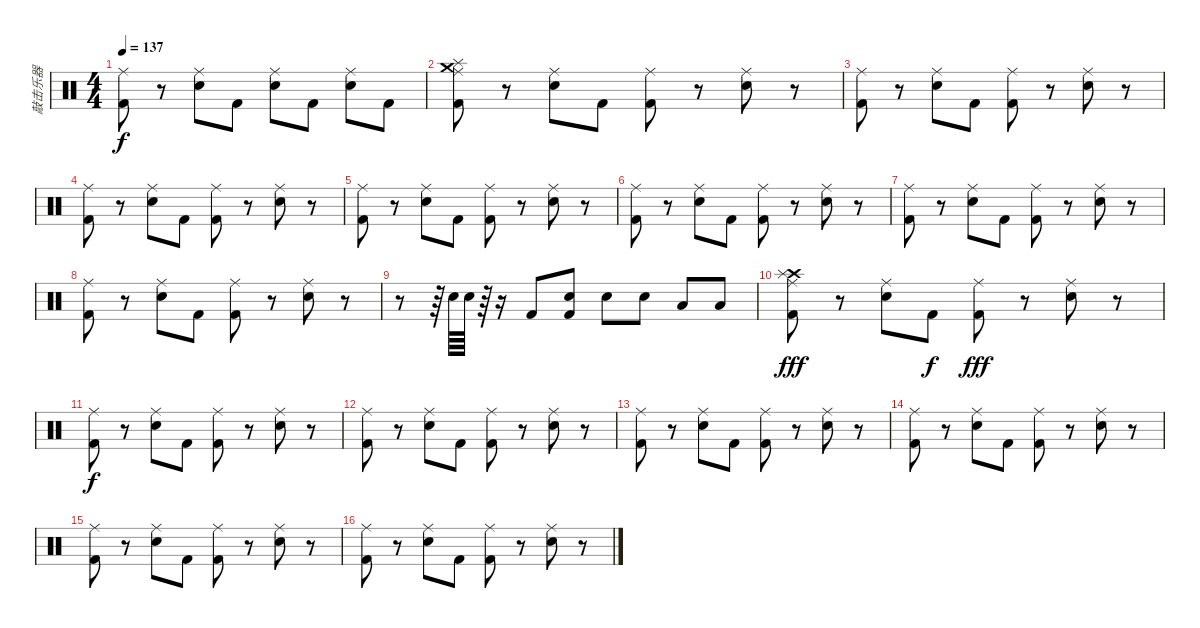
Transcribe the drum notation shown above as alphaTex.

\track ("敲击乐器" "敲击乐器") {instrument percussion}
\staff {score}
\articulation defaults
\ts (4 4)
\tempo 137
\clef neutral
\ks c
("Kick (hit) 2" "Ride (middle)").8{dy f} r.8 ("Snare (hit) 2" "Ride (middle)").8 "Kick (hit) 2".8 ("Snare (hit) 2" "Ride (middle)").8 "Kick (hit) 2".8 ("Snare (hit) 2" "Ride (middle)").8 "Kick (hit) 2".8 |
("Splash (hit)" "Crash medium (hit)" "Kick (hit) 2" "Ride (middle)").8 r.8 ("Snare (hit) 2" "Ride (middle)").8 "Kick (hit) 2".8 ("Kick (hit) 2" "Ride (middle)").8 r.8 ("Snare (hit) 2" "Ride (middle)").8 r.8 |
("Kick (hit) 2" "Ride (middle)").8 r.8 ("Snare (hit) 2" "Ride (middle)").8 "Kick (hit) 2".8 ("Kick (hit) 2" "Ride (middle)").8 r.8 ("Snare (hit) 2" "Ride (middle)").8 r.8 |
("Kick (hit) 2" "Ride (middle)").8 r.8 ("Snare (hit) 2" "Ride (middle)").8 "Kick (hit) 2".8 ("Kick (hit) 2" "Ride (middle)").8 r.8 ("Snare (hit) 2" "Ride (middle)").8 r.8 |
("Kick (hit) 2" "Ride (middle)").8 r.8 ("Snare (hit) 2" "Ride (middle)").8 "Kick (hit) 2".8 ("Kick (hit) 2" "Ride (middle)").8 r.8 ("Snare (hit) 2" "Ride (middle)").8 r.8 |
("Kick (hit) 2" "Ride (middle)").8 r.8 ("Snare (hit) 2" "Ride (middle)").8 "Kick (hit) 2".8 ("Kick (hit) 2" "Ride (middle)").8 r.8 ("Snare (hit) 2" "Ride (middle)").8 r.8 |
("Kick (hit) 2" "Ride (middle)").8 r.8 ("Snare (hit) 2" "Ride (middle)").8 "Kick (hit) 2".8 ("Kick (hit) 2" "Ride (middle)").8 r.8 ("Snare (hit) 2" "Ride (middle)").8 r.8 |
("Kick (hit) 2" "Ride (middle)").8 r.8 ("Snare (hit) 2" "Ride (middle)").8 "Kick (hit) 2".8 ("Kick (hit) 2" "Ride (middle)").8 r.8 ("Snare (hit) 2" "Ride (middle)").8 r.8 |
r.8 r.64 "Snare (hit) 2".64 "Snare (hit) 2".64 r.64 r.16 "Kick (hit) 2".8 ("Snare (hit) 2" "Kick (hit) 2").8 "Snare (hit) 2".8 "Snare (hit) 2".8 "Low Tom (hit)".8 "Low Tom (hit)".8 |
("Crash high (hit)" "Splash (hit)" "Kick (hit) 2" "Ride (middle)").8{dy fff} r.8 ("Snare (hit) 2" "Ride (middle)").8 "Kick (hit) 2".8{dy f} ("Kick (hit) 2" "Ride (middle)").8{dy fff} r.8 ("Snare (hit) 2" "Ride (middle)").8 r.8 |
("Kick (hit) 2" "Ride (middle)").8{dy f} r.8 ("Snare (hit) 2" "Ride (middle)").8 "Kick (hit) 2".8 ("Kick (hit) 2" "Ride (middle)").8 r.8 ("Snare (hit) 2" "Ride (middle)").8 r.8 |
("Kick (hit) 2" "Ride (middle)").8 r.8 ("Snare (hit) 2" "Ride (middle)").8 "Kick (hit) 2".8 ("Kick (hit) 2" "Ride (middle)").8 r.8 ("Snare (hit) 2" "Ride (middle)").8 r.8 |
("Kick (hit) 2" "Ride (middle)").8 r.8 ("Snare (hit) 2" "Ride (middle)").8 "Kick (hit) 2".8 ("Kick (hit) 2" "Ride (middle)").8 r.8 ("Snare (hit) 2" "Ride (middle)").8 r.8 |
("Kick (hit) 2" "Ride (middle)").8 r.8 ("Snare (hit) 2" "Ride (middle)").8 "Kick (hit) 2".8 ("Kick (hit) 2" "Ride (middle)").8 r.8 ("Snare (hit) 2" "Ride (middle)").8 r.8 |
("Kick (hit) 2" "Ride (middle)").8 r.8 ("Snare (hit) 2" "Ride (middle)").8 "Kick (hit) 2".8 ("Kick (hit) 2" "Ride (middle)").8 r.8 ("Snare (hit) 2" "Ride (middle)").8 r.8 |
("Kick (hit) 2" "Ride (middle)").8 r.8 ("Snare (hit) 2" "Ride (middle)").8 "Kick (hit) 2".8 ("Kick (hit) 2" "Ride (middle)").8 r.8 ("Snare (hit) 2" "Ride (middle)").8 r.8
